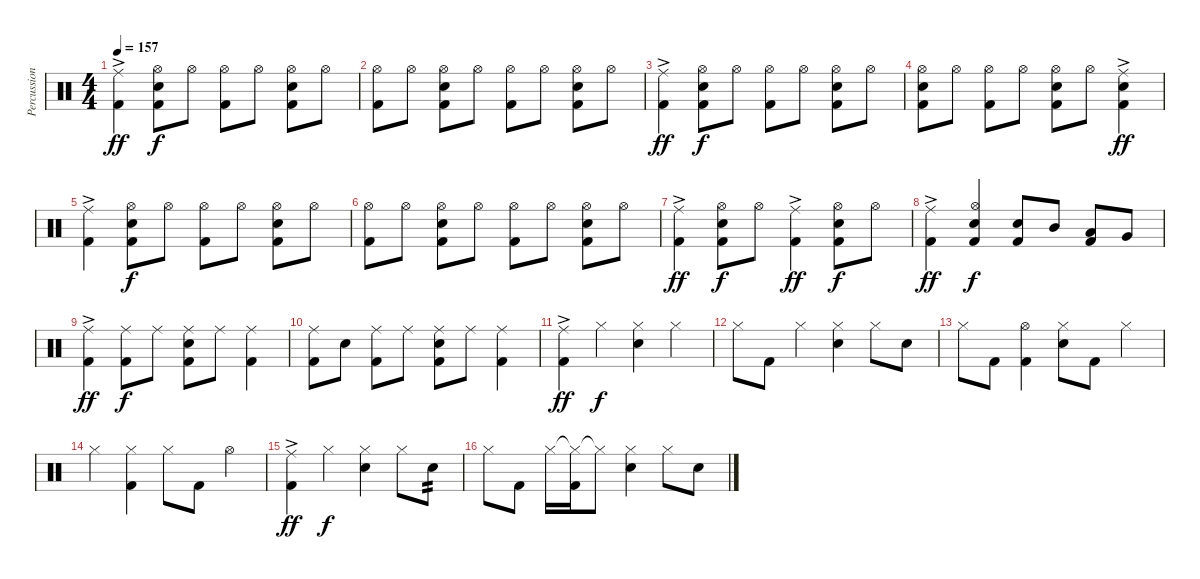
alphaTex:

\track ("Percussion" "Percussion") {instrument percussion}
\staff {score}
\articulation defaults
\ts (4 4)
\tempo 157
\clef neutral
\ks c
("Ride (middle)"{ac} "Kick (hit) 2").4{dy ff} ("Hi-Hat (open)" "Snare (hit) 2" "Kick (hit) 2").8{dy f} "Hi-Hat (open)".8 ("Hi-Hat (open)" "Kick (hit) 2").8 "Hi-Hat (open)".8 ("Hi-Hat (open)" "Snare (hit) 2" "Kick (hit) 2").8 "Hi-Hat (open)".8 |
("Hi-Hat (open)" "Kick (hit) 2").8 "Hi-Hat (open)".8 ("Hi-Hat (open)" "Snare (hit) 2" "Kick (hit) 2").8 "Hi-Hat (open)".8 ("Hi-Hat (open)" "Kick (hit) 2").8 "Hi-Hat (open)".8 ("Hi-Hat (open)" "Snare (hit) 2" "Kick (hit) 2").8 "Hi-Hat (open)".8 |
("Ride (middle)"{ac} "Kick (hit) 2").4{dy ff} ("Hi-Hat (open)" "Snare (hit) 2" "Kick (hit) 2").8{dy f} "Hi-Hat (open)".8 ("Hi-Hat (open)" "Kick (hit) 2").8 "Hi-Hat (open)".8 ("Hi-Hat (open)" "Snare (hit) 2" "Kick (hit) 2").8 "Hi-Hat (open)".8 |
("Hi-Hat (open)" "Snare (hit) 2" "Kick (hit) 2").8 "Hi-Hat (open)".8 ("Hi-Hat (open)" "Kick (hit) 2").8 "Hi-Hat (open)".8 ("Hi-Hat (open)" "Snare (hit) 2" "Kick (hit) 2").8 "Hi-Hat (open)".8 ("Ride (middle)"{ac} "Snare (hit) 2" "Kick (hit) 2").4{dy ff} |
("Ride (middle)"{ac} "Kick (hit) 2").4 ("Hi-Hat (open)" "Snare (hit) 2" "Kick (hit) 2").8{dy f} "Hi-Hat (open)".8 ("Hi-Hat (open)" "Kick (hit) 2").8 "Hi-Hat (open)".8 ("Hi-Hat (open)" "Snare (hit) 2" "Kick (hit) 2").8 "Hi-Hat (open)".8 |
("Hi-Hat (open)" "Kick (hit) 2").8 "Hi-Hat (open)".8 ("Hi-Hat (open)" "Snare (hit) 2" "Kick (hit) 2").8 "Hi-Hat (open)".8 ("Hi-Hat (open)" "Kick (hit) 2").8 "Hi-Hat (open)".8 ("Hi-Hat (open)" "Snare (hit) 2" "Kick (hit) 2").8 "Hi-Hat (open)".8 |
("Ride (middle)"{ac} "Kick (hit) 2").4{dy ff} ("Hi-Hat (open)" "Snare (hit) 2" "Kick (hit) 2").8{dy f} "Hi-Hat (open)".8 ("Ride (middle)"{ac} "Kick (hit) 2").4{dy ff} ("Hi-Hat (open)" "Snare (hit) 2" "Kick (hit) 2").8{dy f} "Hi-Hat (open)".8 |
("Ride (middle)"{ac} "Kick (hit) 2").4{dy ff} ("Hi-Hat (open)" "Snare (hit) 2" "Kick (hit) 2").4{dy f} ("Snare (hit) 2" "Kick (hit) 2").8 "Mid Tom (hit)".8 ("Low Tom (hit)" "Kick (hit) 2").8 "Very Low Tom (hit)".8 |
("Ride (middle)"{ac} "Kick (hit) 2").4{dy ff} ("Ride (middle)" "Kick (hit) 2").8{dy f} "Ride (middle)".8 ("Ride (middle)" "Snare (hit) 2" "Kick (hit) 2").8 "Ride (middle)".8 ("Ride (middle)" "Kick (hit) 2").4 |
("Ride (middle)" "Kick (hit) 2").8 "Snare (hit) 2".8 ("Ride (middle)" "Kick (hit) 2").8 "Ride (middle)".8 ("Ride (middle)" "Snare (hit) 2" "Kick (hit) 2").8 "Ride (middle)".8 ("Ride (middle)" "Kick (hit) 2").4 |
("Ride (middle)"{ac} "Kick (hit) 2").4{dy ff} "Hi-Hat (closed)".4{dy f} ("Hi-Hat (closed)" "Snare (hit) 2").4 "Hi-Hat (closed)".4 |
"Hi-Hat (closed)".8 "Kick (hit) 2".8 "Hi-Hat (closed)".4 ("Hi-Hat (closed)" "Snare (hit) 2").4 "Hi-Hat (closed)".8 "Snare (hit) 2".8 |
"Hi-Hat (closed)".8 "Kick (hit) 2".8 ("Hi-Hat (open)" "Kick (hit) 2").4 ("Hi-Hat (closed)" "Snare (hit) 2").8 "Kick (hit) 2".8 "Hi-Hat (closed)".4 |
"Hi-Hat (closed)".4 ("Hi-Hat (closed)" "Kick (hit) 2").4 "Hi-Hat (closed)".8 "Kick (hit) 2".8 "Hi-Hat (open)".4 |
("Ride (middle)"{ac} "Kick (hit) 2").4{dy ff} "Hi-Hat (closed)".4{dy f} ("Hi-Hat (closed)" "Snare (hit) 2").4 "Hi-Hat (closed)".8 "Snare (hit) 2".8{tp 2} |
"Hi-Hat (closed)".8 "Kick (hit) 2".8 "Hi-Hat (closed)".16 ("Hi-Hat (closed)"{t} "Kick (hit) 2").16 "Hi-Hat (closed)"{t}.8 ("Hi-Hat (closed)" "Snare (hit) 2").4 "Hi-Hat (closed)".8 "Snare (hit) 2".8
